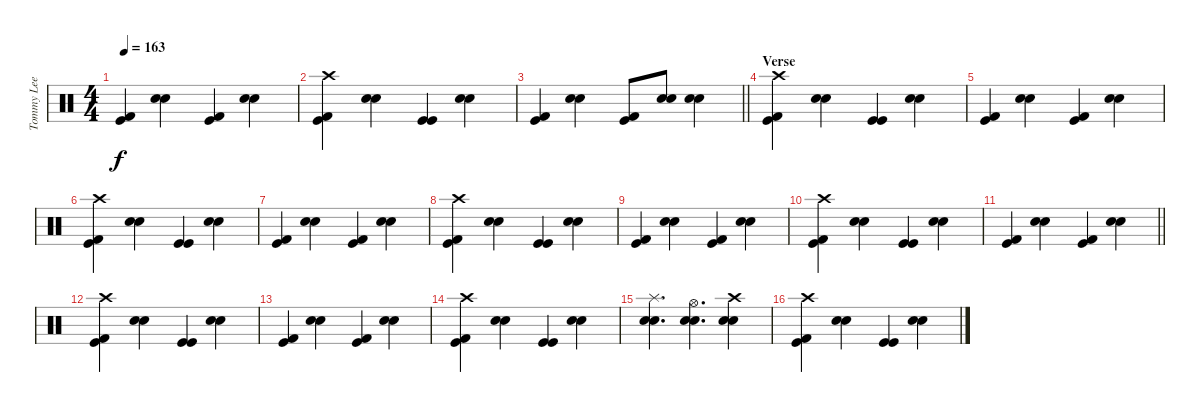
\track ("Tommy Lee" "Tommy Lee") {instrument percussion}
\staff {score}
\articulation defaults
\ts (4 4)
\tempo 163
\clef neutral
\ks c
("Kick (hit) 2" "Kick (hit)").4{dy f} ("Electric Snare (hit)" "Snare (hit) 2").4 ("Kick (hit) 2" "Kick (hit)").4 ("Electric Snare (hit)" "Snare (hit) 2").4 |
("Crash high (hit)" "Kick (hit) 2" "Kick (hit)").4 ("Electric Snare (hit)" "Snare (hit) 2").4 ("Kick (hit)" "Kick (hit)").4 ("Electric Snare (hit)" "Snare (hit) 2").4 |
\barLineRight lightlight
("Kick (hit) 2" "Kick (hit)").4 ("Electric Snare (hit)" "Snare (hit) 2").4 ("Kick (hit) 2" "Kick (hit)").8 ("Electric Snare (hit)" "Snare (hit) 2").8 ("Electric Snare (hit)" "Snare (hit) 2").4 |
\section ("" "Verse")
("Crash high (hit)" "Kick (hit) 2" "Kick (hit)").4 ("Electric Snare (hit)" "Snare (hit) 2").4 ("Kick (hit)" "Kick (hit)").4 ("Electric Snare (hit)" "Snare (hit) 2").4 |
("Kick (hit) 2" "Kick (hit)").4 ("Electric Snare (hit)" "Snare (hit) 2").4 ("Kick (hit) 2" "Kick (hit)").4 ("Electric Snare (hit)" "Snare (hit) 2").4 |
("Crash high (hit)" "Kick (hit) 2" "Kick (hit)").4 ("Electric Snare (hit)" "Snare (hit) 2").4 ("Kick (hit)" "Kick (hit)").4 ("Electric Snare (hit)" "Snare (hit) 2").4 |
("Kick (hit) 2" "Kick (hit)").4 ("Electric Snare (hit)" "Snare (hit) 2").4 ("Kick (hit) 2" "Kick (hit)").4 ("Electric Snare (hit)" "Snare (hit) 2").4 |
("Crash high (hit)" "Kick (hit) 2" "Kick (hit)").4 ("Electric Snare (hit)" "Snare (hit) 2").4 ("Kick (hit)" "Kick (hit)").4 ("Electric Snare (hit)" "Snare (hit) 2").4 |
("Kick (hit) 2" "Kick (hit)").4 ("Electric Snare (hit)" "Snare (hit) 2").4 ("Kick (hit) 2" "Kick (hit)").4 ("Electric Snare (hit)" "Snare (hit) 2").4 |
("Crash high (hit)" "Kick (hit) 2" "Kick (hit)").4 ("Electric Snare (hit)" "Snare (hit) 2").4 ("Kick (hit)" "Kick (hit)").4 ("Electric Snare (hit)" "Snare (hit) 2").4 |
\barLineRight lightlight
("Kick (hit) 2" "Kick (hit)").4 ("Electric Snare (hit)" "Snare (hit) 2").4 ("Kick (hit) 2" "Kick (hit)").4 ("Electric Snare (hit)" "Snare (hit) 2").4 |
("Crash high (hit)" "Kick (hit) 2" "Kick (hit)").4 ("Electric Snare (hit)" "Snare (hit) 2").4 ("Kick (hit)" "Kick (hit)").4 ("Electric Snare (hit)" "Snare (hit) 2").4 |
("Kick (hit) 2" "Kick (hit)").4 ("Electric Snare (hit)" "Snare (hit) 2").4 ("Kick (hit) 2" "Kick (hit)").4 ("Electric Snare (hit)" "Snare (hit) 2").4 |
("Crash high (hit)" "Kick (hit) 2" "Kick (hit)").4 ("Electric Snare (hit)" "Snare (hit) 2").4 ("Kick (hit)" "Kick (hit)").4 ("Electric Snare (hit)" "Snare (hit) 2").4 |
("Splash (hit)" "Electric Snare (hit)" "Snare (hit) 2").4{d} ("Hi-Hat (open)" "Electric Snare (hit)" "Snare (hit) 2").4{d} ("Crash high (hit)" "Electric Snare (hit)" "Snare (hit) 2").4 |
("Crash high (hit)" "Kick (hit) 2" "Kick (hit)").4 ("Electric Snare (hit)" "Snare (hit) 2").4 ("Kick (hit)" "Kick (hit)").4 ("Electric Snare (hit)" "Snare (hit) 2").4
